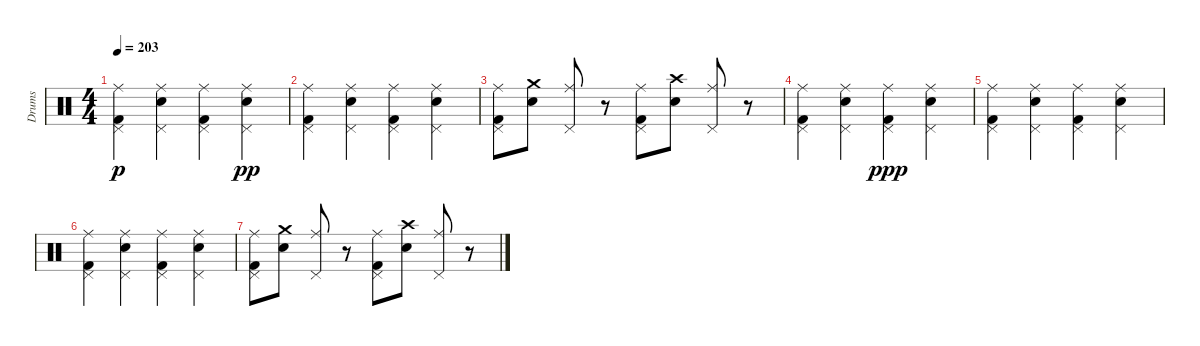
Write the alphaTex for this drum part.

\track ("Drums" "Drums") {instrument percussion}
\staff {score}
\articulation defaults
\ts (4 4)
\tempo 203
\clef neutral
\ks c
("Ride (middle)" "Pedal Hi-Hat (hit)" "Kick (hit) 2").4{dy p} ("Ride (middle)" "Pedal Hi-Hat (hit)" "Snare (hit) 2").4 ("Ride (middle)" "Pedal Hi-Hat (hit)" "Kick (hit) 2").4 ("Ride (middle)" "Pedal Hi-Hat (hit)" "Snare (hit) 2").4{dy pp} |
("Ride (middle)" "Pedal Hi-Hat (hit)" "Kick (hit) 2").4 ("Ride (middle)" "Snare (hit) 2" "Pedal Hi-Hat (hit)").4 ("Ride (middle)" "Kick (hit) 2" "Pedal Hi-Hat (hit)").4 ("Ride (middle)" "Pedal Hi-Hat (hit)" "Snare (hit) 2").4 |
("Ride (middle)" "Pedal Hi-Hat (hit)" "Kick (hit) 2").8 ("Snare (hit) 2" "Crash medium (hit)").8 ("Ride (middle)" "Pedal Hi-Hat (hit)").8 r.8 ("Ride (middle)" "Pedal Hi-Hat (hit)" "Kick (hit) 2").8 ("Crash high (hit)" "Snare (hit) 2").8 ("Ride (middle)" "Pedal Hi-Hat (hit)").8 r.8 |
("Ride (middle)" "Kick (hit) 2" "Pedal Hi-Hat (hit)").4 ("Ride (middle)" "Pedal Hi-Hat (hit)" "Snare (hit) 2").4 ("Ride (middle)" "Pedal Hi-Hat (hit)" "Kick (hit) 2").4{dy ppp} ("Ride (middle)" "Pedal Hi-Hat (hit)" "Snare (hit) 2").4 |
("Ride (middle)" "Pedal Hi-Hat (hit)" "Kick (hit) 2").4 ("Ride (middle)" "Pedal Hi-Hat (hit)" "Snare (hit) 2").4 ("Ride (middle)" "Pedal Hi-Hat (hit)" "Kick (hit) 2").4 ("Ride (middle)" "Pedal Hi-Hat (hit)" "Snare (hit) 2").4 |
("Ride (middle)" "Kick (hit) 2" "Pedal Hi-Hat (hit)").4 ("Ride (middle)" "Pedal Hi-Hat (hit)" "Snare (hit) 2").4 ("Ride (middle)" "Pedal Hi-Hat (hit)" "Kick (hit) 2").4 ("Ride (middle)" "Pedal Hi-Hat (hit)" "Snare (hit) 2").4 |
("Ride (middle)" "Pedal Hi-Hat (hit)" "Kick (hit) 2").8 ("Crash medium (hit)" "Snare (hit) 2").8 ("Ride (middle)" "Pedal Hi-Hat (hit)").8 r.8 ("Ride (middle)" "Pedal Hi-Hat (hit)" "Kick (hit) 2").8 ("Crash high (hit)" "Snare (hit) 2").8 ("Ride (middle)" "Pedal Hi-Hat (hit)").8 r.8
